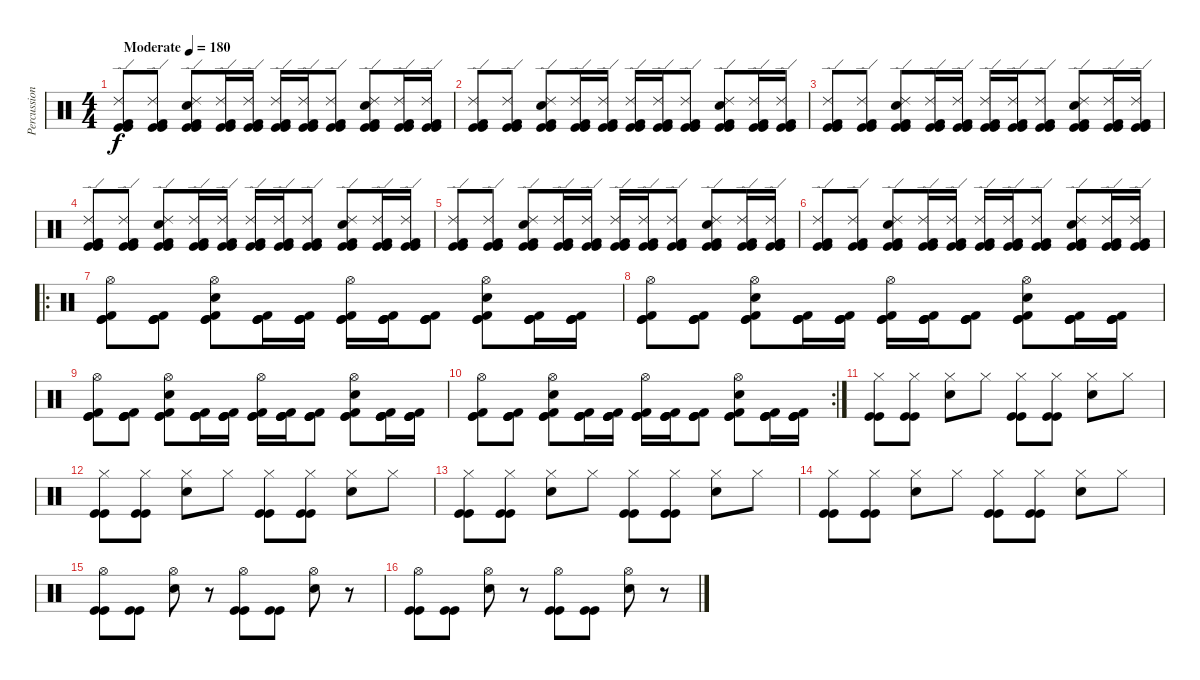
\track ("Percussion" "Percussion") {instrument percussion}
\staff {score}
\articulation defaults
\ts (4 4)
\tempo (180 "Moderate")
\clef neutral
\ks c
("Ride (edge) 2" "Kick (hit)" "Kick (hit)" "Kick (hit) 2").8{dy f} ("Ride (edge) 2" "Kick (hit)" "Kick (hit)" "Kick (hit) 2").8 ("Ride (edge) 2" "Kick (hit)" "Kick (hit)" "Kick (hit) 2" "Electric Snare (hit)").8 ("Ride (edge) 2" "Kick (hit)" "Kick (hit)" "Kick (hit) 2").16 ("Ride (edge) 2" "Kick (hit)" "Kick (hit)" "Kick (hit) 2").16 ("Ride (edge) 2" "Kick (hit)" "Kick (hit)" "Kick (hit) 2").16 ("Ride (edge) 2" "Kick (hit)" "Kick (hit)" "Kick (hit) 2").16 ("Ride (edge) 2" "Kick (hit)" "Kick (hit)" "Kick (hit) 2").8 ("Ride (edge) 2" "Kick (hit)" "Kick (hit)" "Kick (hit) 2" "Electric Snare (hit)").8 ("Ride (edge) 2" "Kick (hit)" "Kick (hit)" "Kick (hit) 2").16 ("Ride (edge) 2" "Kick (hit)" "Kick (hit)" "Kick (hit) 2").16 |
("Ride (edge) 2" "Kick (hit)" "Kick (hit)" "Kick (hit) 2").8 ("Ride (edge) 2" "Kick (hit)" "Kick (hit)" "Kick (hit) 2").8 ("Ride (edge) 2" "Kick (hit)" "Kick (hit)" "Kick (hit) 2" "Electric Snare (hit)").8 ("Ride (edge) 2" "Kick (hit)" "Kick (hit)" "Kick (hit) 2").16 ("Ride (edge) 2" "Kick (hit)" "Kick (hit)" "Kick (hit) 2").16 ("Ride (edge) 2" "Kick (hit)" "Kick (hit)" "Kick (hit) 2").16 ("Ride (edge) 2" "Kick (hit)" "Kick (hit)" "Kick (hit) 2").16 ("Ride (edge) 2" "Kick (hit)" "Kick (hit)" "Kick (hit) 2").8 ("Ride (edge) 2" "Kick (hit)" "Kick (hit)" "Kick (hit) 2" "Electric Snare (hit)").8 ("Ride (edge) 2" "Kick (hit)" "Kick (hit)" "Kick (hit) 2").16 ("Ride (edge) 2" "Kick (hit)" "Kick (hit)" "Kick (hit) 2").16 |
("Ride (edge) 2" "Kick (hit)" "Kick (hit)" "Kick (hit) 2").8 ("Ride (edge) 2" "Kick (hit)" "Kick (hit)" "Kick (hit) 2").8 ("Ride (edge) 2" "Kick (hit)" "Kick (hit)" "Kick (hit) 2" "Electric Snare (hit)").8 ("Ride (edge) 2" "Kick (hit)" "Kick (hit)" "Kick (hit) 2").16 ("Ride (edge) 2" "Kick (hit)" "Kick (hit)" "Kick (hit) 2").16 ("Ride (edge) 2" "Kick (hit)" "Kick (hit)" "Kick (hit) 2").16 ("Ride (edge) 2" "Kick (hit)" "Kick (hit)" "Kick (hit) 2").16 ("Ride (edge) 2" "Kick (hit)" "Kick (hit)" "Kick (hit) 2").8 ("Ride (edge) 2" "Kick (hit)" "Kick (hit)" "Kick (hit) 2" "Electric Snare (hit)").8 ("Ride (edge) 2" "Kick (hit)" "Kick (hit)" "Kick (hit) 2").16 ("Ride (edge) 2" "Kick (hit)" "Kick (hit)" "Kick (hit) 2").16 |
("Ride (edge) 2" "Kick (hit)" "Kick (hit)" "Kick (hit) 2").8 ("Ride (edge) 2" "Kick (hit)" "Kick (hit)" "Kick (hit) 2").8 ("Ride (edge) 2" "Kick (hit)" "Kick (hit)" "Kick (hit) 2" "Electric Snare (hit)").8 ("Ride (edge) 2" "Kick (hit)" "Kick (hit)" "Kick (hit) 2").16 ("Ride (edge) 2" "Kick (hit)" "Kick (hit)" "Kick (hit) 2").16 ("Ride (edge) 2" "Kick (hit)" "Kick (hit)" "Kick (hit) 2").16 ("Ride (edge) 2" "Kick (hit)" "Kick (hit)" "Kick (hit) 2").16 ("Ride (edge) 2" "Kick (hit)" "Kick (hit)" "Kick (hit) 2").8 ("Ride (edge) 2" "Kick (hit)" "Kick (hit)" "Kick (hit) 2" "Electric Snare (hit)").8 ("Ride (edge) 2" "Kick (hit)" "Kick (hit)" "Kick (hit) 2").16 ("Ride (edge) 2" "Kick (hit)" "Kick (hit)" "Kick (hit) 2").16 |
("Ride (edge) 2" "Kick (hit)" "Kick (hit)" "Kick (hit) 2").8 ("Ride (edge) 2" "Kick (hit)" "Kick (hit)" "Kick (hit) 2").8 ("Ride (edge) 2" "Kick (hit)" "Kick (hit)" "Kick (hit) 2" "Electric Snare (hit)").8 ("Ride (edge) 2" "Kick (hit)" "Kick (hit)" "Kick (hit) 2").16 ("Ride (edge) 2" "Kick (hit)" "Kick (hit)" "Kick (hit) 2").16 ("Ride (edge) 2" "Kick (hit)" "Kick (hit)" "Kick (hit) 2").16 ("Ride (edge) 2" "Kick (hit)" "Kick (hit)" "Kick (hit) 2").16 ("Ride (edge) 2" "Kick (hit)" "Kick (hit)" "Kick (hit) 2").8 ("Ride (edge) 2" "Kick (hit)" "Kick (hit)" "Kick (hit) 2" "Electric Snare (hit)").8 ("Ride (edge) 2" "Kick (hit)" "Kick (hit)" "Kick (hit) 2").16 ("Ride (edge) 2" "Kick (hit)" "Kick (hit)" "Kick (hit) 2").16 |
("Ride (edge) 2" "Kick (hit)" "Kick (hit)" "Kick (hit) 2").8 ("Ride (edge) 2" "Kick (hit)" "Kick (hit)" "Kick (hit) 2").8 ("Ride (edge) 2" "Kick (hit)" "Kick (hit)" "Kick (hit) 2" "Electric Snare (hit)").8 ("Ride (edge) 2" "Kick (hit)" "Kick (hit)" "Kick (hit) 2").16 ("Ride (edge) 2" "Kick (hit)" "Kick (hit)" "Kick (hit) 2").16 ("Ride (edge) 2" "Kick (hit)" "Kick (hit)" "Kick (hit) 2").16 ("Ride (edge) 2" "Kick (hit)" "Kick (hit)" "Kick (hit) 2").16 ("Ride (edge) 2" "Kick (hit)" "Kick (hit)" "Kick (hit) 2").8 ("Ride (edge) 2" "Kick (hit)" "Kick (hit)" "Kick (hit) 2" "Electric Snare (hit)").8 ("Ride (edge) 2" "Kick (hit)" "Kick (hit)" "Kick (hit) 2").16 ("Ride (edge) 2" "Kick (hit)" "Kick (hit)" "Kick (hit) 2").16 |
\ro
("Hi-Hat (open)" "Kick (hit)" "Kick (hit)" "Kick (hit) 2").8 ("Kick (hit)" "Kick (hit)" "Kick (hit)" "Kick (hit) 2").8 ("Hi-Hat (open)" "Kick (hit)" "Kick (hit)" "Kick (hit) 2" "Electric Snare (hit)").8 ("Kick (hit)" "Kick (hit)" "Kick (hit)" "Kick (hit) 2").16 ("Kick (hit)" "Kick (hit)" "Kick (hit)" "Kick (hit) 2").16 ("Hi-Hat (open)" "Kick (hit)" "Kick (hit)" "Kick (hit) 2").16 ("Kick (hit)" "Kick (hit)" "Kick (hit)" "Kick (hit) 2").16 ("Kick (hit)" "Kick (hit)" "Kick (hit)" "Kick (hit) 2").8 ("Hi-Hat (open)" "Kick (hit)" "Kick (hit)" "Kick (hit) 2" "Electric Snare (hit)").8 ("Kick (hit)" "Kick (hit)" "Kick (hit)" "Kick (hit) 2").16 ("Kick (hit)" "Kick (hit)" "Kick (hit)" "Kick (hit) 2").16 |
("Hi-Hat (open)" "Kick (hit)" "Kick (hit)" "Kick (hit) 2").8 ("Kick (hit)" "Kick (hit)" "Kick (hit)" "Kick (hit) 2").8 ("Hi-Hat (open)" "Kick (hit)" "Kick (hit)" "Kick (hit) 2" "Electric Snare (hit)").8 ("Kick (hit)" "Kick (hit)" "Kick (hit)" "Kick (hit) 2").16 ("Kick (hit)" "Kick (hit)" "Kick (hit)" "Kick (hit) 2").16 ("Hi-Hat (open)" "Kick (hit)" "Kick (hit)" "Kick (hit) 2").16 ("Kick (hit)" "Kick (hit)" "Kick (hit)" "Kick (hit) 2").16 ("Kick (hit)" "Kick (hit)" "Kick (hit)" "Kick (hit) 2").8 ("Hi-Hat (open)" "Kick (hit)" "Kick (hit)" "Kick (hit) 2" "Electric Snare (hit)").8 ("Kick (hit)" "Kick (hit)" "Kick (hit)" "Kick (hit) 2").16 ("Kick (hit)" "Kick (hit)" "Kick (hit)" "Kick (hit) 2").16 |
("Hi-Hat (open)" "Kick (hit)" "Kick (hit)" "Kick (hit) 2").8 ("Kick (hit)" "Kick (hit)" "Kick (hit)" "Kick (hit) 2").8 ("Hi-Hat (open)" "Kick (hit)" "Kick (hit)" "Kick (hit) 2" "Electric Snare (hit)").8 ("Kick (hit)" "Kick (hit)" "Kick (hit)" "Kick (hit) 2").16 ("Kick (hit)" "Kick (hit)" "Kick (hit)" "Kick (hit) 2").16 ("Hi-Hat (open)" "Kick (hit)" "Kick (hit)" "Kick (hit) 2").16 ("Kick (hit)" "Kick (hit)" "Kick (hit)" "Kick (hit) 2").16 ("Kick (hit)" "Kick (hit)" "Kick (hit)" "Kick (hit) 2").8 ("Hi-Hat (open)" "Kick (hit)" "Kick (hit)" "Kick (hit) 2" "Electric Snare (hit)").8 ("Kick (hit)" "Kick (hit)" "Kick (hit)" "Kick (hit) 2").16 ("Kick (hit)" "Kick (hit)" "Kick (hit)" "Kick (hit) 2").16 |
\rc 2
("Hi-Hat (open)" "Kick (hit)" "Kick (hit)" "Kick (hit) 2").8 ("Kick (hit)" "Kick (hit)" "Kick (hit)" "Kick (hit) 2").8 ("Hi-Hat (open)" "Kick (hit)" "Kick (hit)" "Kick (hit) 2" "Electric Snare (hit)").8 ("Kick (hit)" "Kick (hit)" "Kick (hit)" "Kick (hit) 2").16 ("Kick (hit)" "Kick (hit)" "Kick (hit)" "Kick (hit) 2").16 ("Hi-Hat (open)" "Kick (hit)" "Kick (hit)" "Kick (hit) 2").16 ("Kick (hit)" "Kick (hit)" "Kick (hit)" "Kick (hit) 2").16 ("Kick (hit)" "Kick (hit)" "Kick (hit)" "Kick (hit) 2").8 ("Hi-Hat (open)" "Kick (hit)" "Kick (hit)" "Kick (hit) 2" "Electric Snare (hit)").8 ("Kick (hit)" "Kick (hit)" "Kick (hit)" "Kick (hit) 2").16 ("Kick (hit)" "Kick (hit)" "Kick (hit)" "Kick (hit) 2").16 |
("Hi-Hat (closed)" "Kick (hit)" "Kick (hit)").8 ("Hi-Hat (closed)" "Kick (hit)" "Kick (hit)").8 ("Hi-Hat (closed)" "Electric Snare (hit)").8 "Hi-Hat (closed)".8 ("Hi-Hat (closed)" "Kick (hit)" "Kick (hit)").8 ("Hi-Hat (closed)" "Kick (hit)" "Kick (hit)").8 ("Hi-Hat (closed)" "Electric Snare (hit)").8 "Hi-Hat (closed)".8 |
("Hi-Hat (closed)" "Kick (hit)" "Kick (hit)").8 ("Hi-Hat (closed)" "Kick (hit)" "Kick (hit)").8 ("Hi-Hat (closed)" "Electric Snare (hit)").8 "Hi-Hat (closed)".8 ("Hi-Hat (closed)" "Kick (hit)" "Kick (hit)").8 ("Hi-Hat (closed)" "Kick (hit)" "Kick (hit)").8 ("Hi-Hat (closed)" "Electric Snare (hit)").8 "Hi-Hat (closed)".8 |
("Hi-Hat (closed)" "Kick (hit)" "Kick (hit)").8 ("Hi-Hat (closed)" "Kick (hit)" "Kick (hit)").8 ("Hi-Hat (closed)" "Electric Snare (hit)").8 "Hi-Hat (closed)".8 ("Hi-Hat (closed)" "Kick (hit)" "Kick (hit)").8 ("Hi-Hat (closed)" "Kick (hit)" "Kick (hit)").8 ("Hi-Hat (closed)" "Electric Snare (hit)").8 "Hi-Hat (closed)".8 |
("Hi-Hat (closed)" "Kick (hit)" "Kick (hit)").8 ("Hi-Hat (closed)" "Kick (hit)" "Kick (hit)").8 ("Hi-Hat (closed)" "Electric Snare (hit)").8 "Hi-Hat (closed)".8 ("Hi-Hat (closed)" "Kick (hit)" "Kick (hit)").8 ("Hi-Hat (closed)" "Kick (hit)" "Kick (hit)").8 ("Hi-Hat (closed)" "Electric Snare (hit)").8 "Hi-Hat (closed)".8 |
("Hi-Hat (open)" "Kick (hit)" "Kick (hit)").8 ("Kick (hit)" "Kick (hit)").8 ("Hi-Hat (open)" "Electric Snare (hit)").8 r.8 ("Hi-Hat (open)" "Kick (hit)" "Kick (hit)").8 ("Kick (hit)" "Kick (hit)").8 ("Hi-Hat (open)" "Electric Snare (hit)").8 r.8 |
("Hi-Hat (open)" "Kick (hit)" "Kick (hit)").8 ("Kick (hit)" "Kick (hit)").8 ("Hi-Hat (open)" "Electric Snare (hit)").8 r.8 ("Hi-Hat (open)" "Kick (hit)" "Kick (hit)").8 ("Kick (hit)" "Kick (hit)").8 ("Hi-Hat (open)" "Electric Snare (hit)").8 r.8
